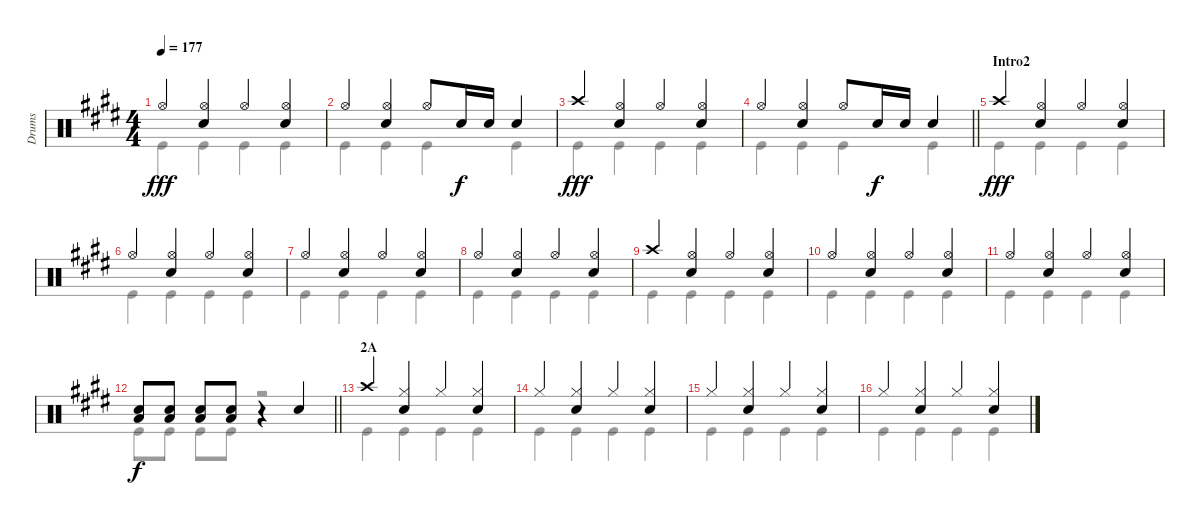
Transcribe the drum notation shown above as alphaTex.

\track ("Drums" "Drums") {instrument percussion}
\staff {score}
\articulation defaults
\voice
\ts (4 4)
\tempo 177
\clef neutral
\ks e "Hi-Hat (open)".4{dy fff}
("Hi-Hat (open)" "Snare (hit) 2").4 "Hi-Hat (open)".4 ("Hi-Hat (open)" "Snare (hit) 2").4 |
"Hi-Hat (open)".4 ("Hi-Hat (open)" "Snare (hit) 2").4 "Hi-Hat (open)".8 "Snare (hit) 2".16{dy f} "Snare (hit) 2".16 "Snare (hit) 2".4 |
"Crash high (hit)".4{dy fff} ("Hi-Hat (open)" "Snare (hit) 2").4 "Hi-Hat (open)".4 ("Hi-Hat (open)" "Snare (hit) 2").4 |
\barLineRight lightlight "Hi-Hat (open)".4
("Hi-Hat (open)" "Snare (hit) 2").4 "Hi-Hat (open)".8 "Snare (hit) 2".16{dy f} "Snare (hit) 2".16 "Snare (hit) 2".4 |
\section ("" "Intro2")
"Crash high (hit)".4{dy fff} ("Hi-Hat (open)" "Snare (hit) 2").4 "Hi-Hat (open)".4 ("Hi-Hat (open)" "Snare (hit) 2").4 |
"Hi-Hat (open)".4 ("Hi-Hat (open)" "Snare (hit) 2").4 "Hi-Hat (open)".4 ("Hi-Hat (open)" "Snare (hit) 2").4 |
"Hi-Hat (open)".4 ("Hi-Hat (open)" "Snare (hit) 2").4 "Hi-Hat (open)".4 ("Hi-Hat (open)" "Snare (hit) 2").4 |
"Hi-Hat (open)".4 ("Hi-Hat (open)" "Snare (hit) 2").4 "Hi-Hat (open)".4 ("Hi-Hat (open)" "Snare (hit) 2").4 |
"Crash high (hit)".4 ("Hi-Hat (open)" "Snare (hit) 2").4 "Hi-Hat (open)".4 ("Hi-Hat (open)" "Snare (hit) 2").4 |
"Hi-Hat (open)".4 ("Hi-Hat (open)" "Snare (hit) 2").4 "Hi-Hat (open)".4 ("Hi-Hat (open)" "Snare (hit) 2").4 |
"Hi-Hat (open)".4 ("Hi-Hat (open)" "Snare (hit) 2").4 "Hi-Hat (open)".4 ("Hi-Hat (open)" "Snare (hit) 2").4 |
\barLineRight lightlight
("Low Tom (hit)" "Snare (hit) 2").8{dy f} ("Low Tom (hit)" "Snare (hit) 2").8 ("Low Tom (hit)" "Snare (hit) 2").8 ("Low Tom (hit)" "Snare (hit) 2").8 r.4 "Snare (hit) 2".4 |
\section ("" "2A")
"Crash high (hit)".4 ("Hi-Hat (closed)" "Snare (hit) 2").4 "Hi-Hat (closed)".4 ("Hi-Hat (closed)" "Snare (hit) 2").4 |
"Hi-Hat (closed)".4 ("Hi-Hat (closed)" "Snare (hit) 2").4 "Hi-Hat (closed)".4 ("Hi-Hat (closed)" "Snare (hit) 2").4 |
"Hi-Hat (closed)".4 ("Hi-Hat (closed)" "Snare (hit) 2").4 "Hi-Hat (closed)".4 ("Hi-Hat (closed)" "Snare (hit) 2").4 |
"Hi-Hat (closed)".4 ("Hi-Hat (closed)" "Snare (hit) 2").4 "Hi-Hat (closed)".4 ("Hi-Hat (closed)" "Snare (hit) 2").4
\voice
\clef neutral
\ottava regular
\simile none
\ks e "Kick (hit)".4{dy fff} "Kick (hit)".4 "Kick (hit)".4 "Kick (hit)".4
|
"Kick (hit)".4 "Kick (hit)".4 "Kick (hit)".4 "Kick (hit)".4 |
"Kick (hit)".4 "Kick (hit)".4 "Kick (hit)".4 "Kick (hit)".4 |
\barLineRight lightlight "Kick (hit)".4 "Kick (hit)".4 "Kick (hit)".4 "Kick (hit)".4
|
"Kick (hit)".4 "Kick (hit)".4 "Kick (hit)".4 "Kick (hit)".4 |
"Kick (hit)".4 "Kick (hit)".4 "Kick (hit)".4 "Kick (hit)".4 |
"Kick (hit)".4 "Kick (hit)".4 "Kick (hit)".4 "Kick (hit)".4 |
"Kick (hit)".4 "Kick (hit)".4 "Kick (hit)".4 "Kick (hit)".4 |
"Kick (hit)".4 "Kick (hit)".4 "Kick (hit)".4 "Kick (hit)".4 |
"Kick (hit)".4 "Kick (hit)".4 "Kick (hit)".4 "Kick (hit)".4 |
"Kick (hit)".4 "Kick (hit)".4 "Kick (hit)".4 "Kick (hit)".4 |
\barLineRight lightlight "Kick (hit)".8{dy f} "Kick (hit)".8 "Kick (hit)".8 "Kick (hit)".8
r.2 |
"Kick (hit)".4 "Kick (hit)".4 "Kick (hit)".4 "Kick (hit)".4 |
"Kick (hit)".4 "Kick (hit)".4 "Kick (hit)".4 "Kick (hit)".4 |
"Kick (hit)".4 "Kick (hit)".4 "Kick (hit)".4 "Kick (hit)".4 |
"Kick (hit)".4 "Kick (hit)".4 "Kick (hit)".4 "Kick (hit)".4
